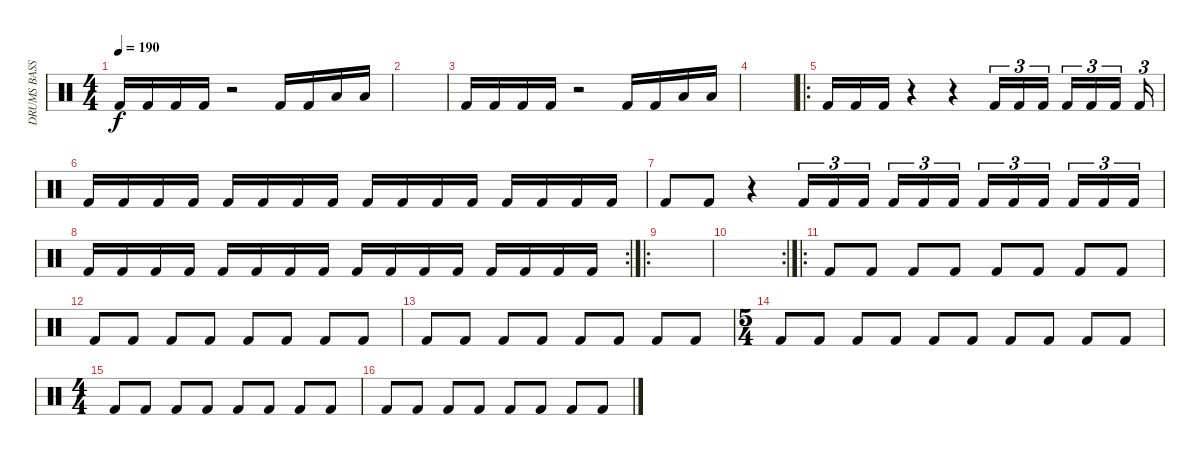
\track ("DRUMS BASS" "DRUMS BASS") {instrument percussion}
\staff {score}
\articulation defaults
\ts (4 4)
\tempo 190
\clef neutral
\ks c "Kick (hit) 2".16{dy f} "Kick (hit) 2".16 "Kick (hit) 2".16 "Kick (hit) 2".16
r.2 "Kick (hit) 2".16 "Kick (hit) 2".16 "Low Tom (hit)".16 "Low Tom (hit)".16 |
|
"Kick (hit) 2".16 "Kick (hit) 2".16 "Kick (hit) 2".16 "Kick (hit) 2".16 r.2 "Kick (hit) 2".16 "Kick (hit) 2".16 "Low Tom (hit)".16 "Low Tom (hit)".16 |
|
\ro "Kick (hit) 2".16 "Kick (hit) 2".16 "Kick (hit) 2".16
r.4 r.4 "Kick (hit) 2".16{tu (3 2)} "Kick (hit) 2".16{tu (3 2)} "Kick (hit) 2".16{tu (3 2)} "Kick (hit) 2".16{tu (3 2)} "Kick (hit) 2".16{tu (3 2)} "Kick (hit) 2".16{tu (3 2)} "Kick (hit) 2".16{tu (3 2)} |
"Kick (hit) 2".16 "Kick (hit) 2".16 "Kick (hit) 2".16 "Kick (hit) 2".16 "Kick (hit) 2".16 "Kick (hit) 2".16 "Kick (hit) 2".16 "Kick (hit) 2".16 "Kick (hit) 2".16 "Kick (hit) 2".16 "Kick (hit) 2".16 "Kick (hit) 2".16 "Kick (hit) 2".16 "Kick (hit) 2".16 "Kick (hit) 2".16 "Kick (hit) 2".16 |
"Kick (hit) 2".8 "Kick (hit) 2".8 r.4 "Kick (hit) 2".16{tu (3 2)} "Kick (hit) 2".16{tu (3 2)} "Kick (hit) 2".16{tu (3 2)} "Kick (hit) 2".16{tu (3 2)} "Kick (hit) 2".16{tu (3 2)} "Kick (hit) 2".16{tu (3 2)} "Kick (hit) 2".16{tu (3 2)} "Kick (hit) 2".16{tu (3 2)} "Kick (hit) 2".16{tu (3 2)} "Kick (hit) 2".16{tu (3 2)} "Kick (hit) 2".16{tu (3 2)} "Kick (hit) 2".16{tu (3 2)} |
\rc 2 "Kick (hit) 2".16 "Kick (hit) 2".16 "Kick (hit) 2".16 "Kick (hit) 2".16 "Kick (hit) 2".16 "Kick (hit) 2".16 "Kick (hit) 2".16 "Kick (hit) 2".16 "Kick (hit) 2".16 "Kick (hit) 2".16 "Kick (hit) 2".16 "Kick (hit) 2".16 "Kick (hit) 2".16 "Kick (hit) 2".16 "Kick (hit) 2".16 "Kick (hit) 2".16
|
\ro
|
\rc 2
|
\ro "Kick (hit) 2".8 "Kick (hit) 2".8 "Kick (hit) 2".8 "Kick (hit) 2".8 "Kick (hit) 2".8 "Kick (hit) 2".8 "Kick (hit) 2".8 "Kick (hit) 2".8
|
"Kick (hit) 2".8 "Kick (hit) 2".8 "Kick (hit) 2".8 "Kick (hit) 2".8 "Kick (hit) 2".8 "Kick (hit) 2".8 "Kick (hit) 2".8 "Kick (hit) 2".8 |
"Kick (hit) 2".8 "Kick (hit) 2".8 "Kick (hit) 2".8 "Kick (hit) 2".8 "Kick (hit) 2".8 "Kick (hit) 2".8 "Kick (hit) 2".8 "Kick (hit) 2".8 |
\ts (5 4)
"Kick (hit) 2".8 "Kick (hit) 2".8 "Kick (hit) 2".8 "Kick (hit) 2".8 "Kick (hit) 2".8 "Kick (hit) 2".8 "Kick (hit) 2".8 "Kick (hit) 2".8 "Kick (hit) 2".8 "Kick (hit) 2".8 |
\ts (4 4)
"Kick (hit) 2".8 "Kick (hit) 2".8 "Kick (hit) 2".8 "Kick (hit) 2".8 "Kick (hit) 2".8 "Kick (hit) 2".8 "Kick (hit) 2".8 "Kick (hit) 2".8 |
"Kick (hit) 2".8 "Kick (hit) 2".8 "Kick (hit) 2".8 "Kick (hit) 2".8 "Kick (hit) 2".8 "Kick (hit) 2".8 "Kick (hit) 2".8 "Kick (hit) 2".8
